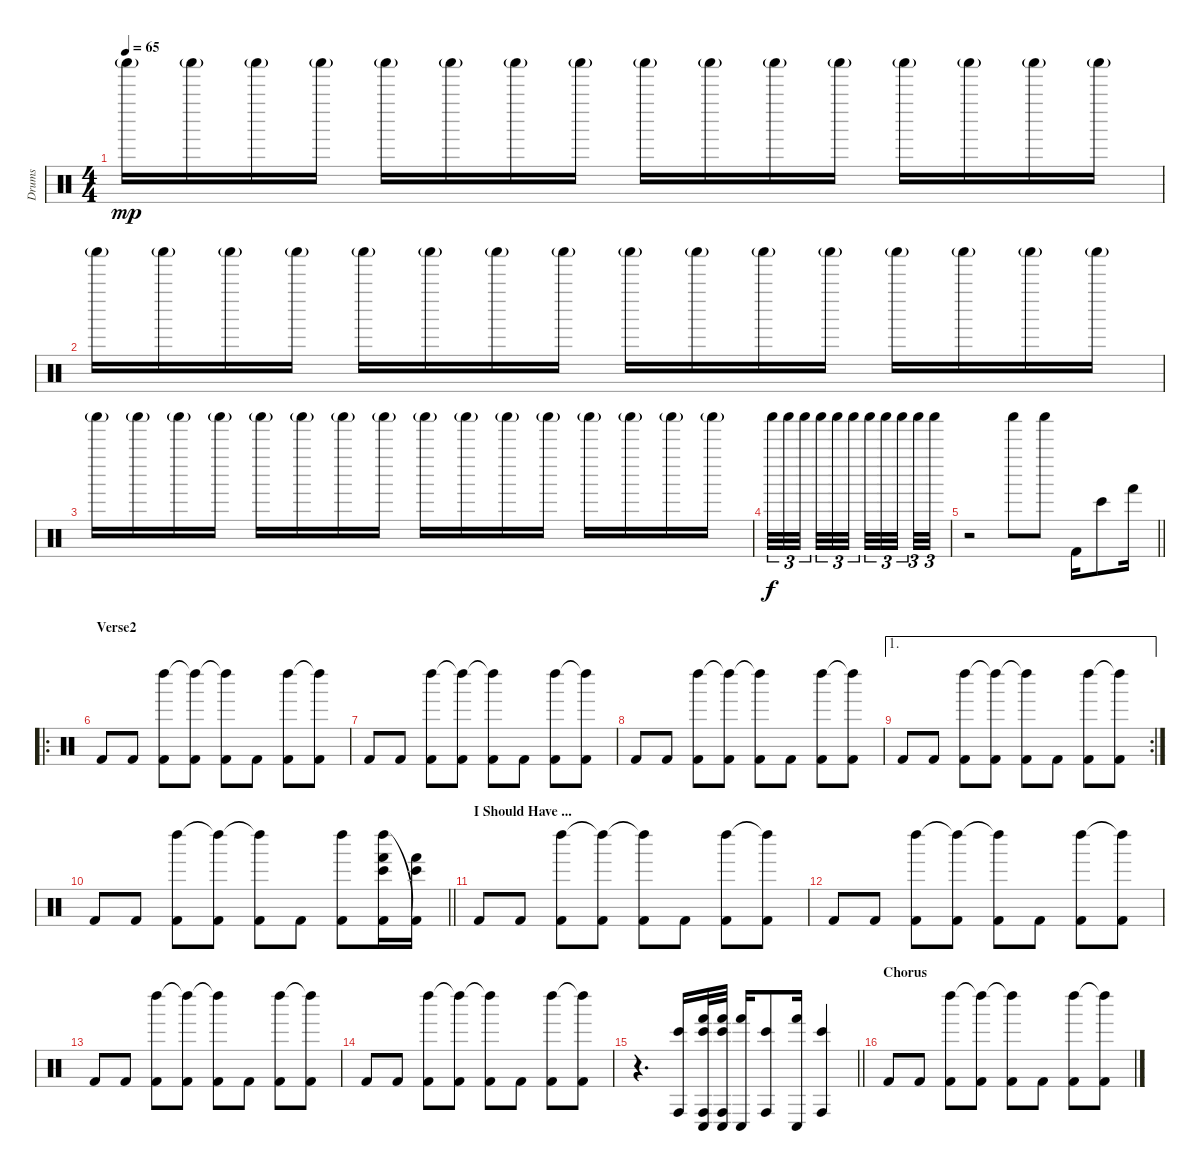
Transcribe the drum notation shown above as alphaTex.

\track ("Drums" "Drums") {instrument percussion}
\staff {score}
\articulation defaults
\ts (4 4)
\tempo 65
\clef neutral
\ks c "Shaker (hit)"{g}.16{dy mp} "Shaker (hit)"{g}.16 "Shaker (hit)"{g}.16 "Shaker (hit)"{g}.16 "Shaker (hit)"{g}.16 "Shaker (hit)"{g}.16 "Shaker (hit)"{g}.16 "Shaker (hit)"{g}.16 "Shaker (hit)"{g}.16 "Shaker (hit)"{g}.16 "Shaker (hit)"{g}.16 "Shaker (hit)"{g}.16 "Shaker (hit)"{g}.16 "Shaker (hit)"{g}.16 "Shaker (hit)"{g}.16 "Shaker (hit)"{g}.16
|
"Shaker (hit)"{g}.16 "Shaker (hit)"{g}.16 "Shaker (hit)"{g}.16 "Shaker (hit)"{g}.16 "Shaker (hit)"{g}.16 "Shaker (hit)"{g}.16 "Shaker (hit)"{g}.16 "Shaker (hit)"{g}.16 "Shaker (hit)"{g}.16 "Shaker (hit)"{g}.16 "Shaker (hit)"{g}.16 "Shaker (hit)"{g}.16 "Shaker (hit)"{g}.16 "Shaker (hit)"{g}.16 "Shaker (hit)"{g}.16 "Shaker (hit)"{g}.16 |
"Shaker (hit)"{g}.16 "Shaker (hit)"{g}.16 "Shaker (hit)"{g}.16 "Shaker (hit)"{g}.16 "Shaker (hit)"{g}.16 "Shaker (hit)"{g}.16 "Shaker (hit)"{g}.16 "Shaker (hit)"{g}.16 "Shaker (hit)"{g}.16 "Shaker (hit)"{g}.16 "Shaker (hit)"{g}.16 "Shaker (hit)"{g}.16 "Shaker (hit)"{g}.16 "Shaker (hit)"{g}.16 "Shaker (hit)"{g}.16 "Shaker (hit)"{g}.16 |
"Shaker (hit)".32{tu (3 2) dy f} "Shaker (hit)".32{tu (3 2)} "Shaker (hit)".32{tu (3 2) beam splitsecondary} "Shaker (hit)".32{tu (3 2)} "Shaker (hit)".32{tu (3 2)} "Shaker (hit)".32{tu (3 2) beam splitsecondary} "Shaker (hit)".32{tu (3 2)} "Shaker (hit)".32{tu (3 2)} "Shaker (hit)".32{tu (3 2) beam splitsecondary} "Shaker (hit)".32{tu (3 2)} "Shaker (hit)".32{tu (3 2)} |
\barLineRight lightlight
r.2 "Shaker (hit)".8 "Shaker (hit)".8 "Kick (hit) 2".16 "Bongo High (hit)".8 "Hand (hit)".16 |
\ro
\section ("" "Verse2")
"Kick (hit) 2".8 "Kick (hit) 2".8 ("Left Maraca (hit)" "Kick (hit) 2").8 ("Left Maraca (hit)"{t} "Kick (hit) 2").8 ("Left Maraca (hit)"{t} "Kick (hit) 2").8 "Kick (hit) 2".8 ("Left Maraca (hit)" "Kick (hit) 2").8 ("Left Maraca (hit)"{t} "Kick (hit) 2").8 |
"Kick (hit) 2".8 "Kick (hit) 2".8 ("Left Maraca (hit)" "Kick (hit) 2").8 ("Left Maraca (hit)"{t} "Kick (hit) 2").8 ("Left Maraca (hit)"{t} "Kick (hit) 2").8 "Kick (hit) 2".8 ("Left Maraca (hit)" "Kick (hit) 2").8 ("Left Maraca (hit)"{t} "Kick (hit) 2").8 |
"Kick (hit) 2".8 "Kick (hit) 2".8 ("Left Maraca (hit)" "Kick (hit) 2").8 ("Left Maraca (hit)"{t} "Kick (hit) 2").8 ("Left Maraca (hit)"{t} "Kick (hit) 2").8 "Kick (hit) 2".8 ("Left Maraca (hit)" "Kick (hit) 2").8 ("Left Maraca (hit)"{t} "Kick (hit) 2").8 |
\ae 1
\rc 2 "Kick (hit) 2".8 "Kick (hit) 2".8
("Left Maraca (hit)" "Kick (hit) 2").8 ("Left Maraca (hit)"{t} "Kick (hit) 2").8 ("Left Maraca (hit)"{t} "Kick (hit) 2").8 "Kick (hit) 2".8 ("Left Maraca (hit)" "Kick (hit) 2").8 ("Left Maraca (hit)"{t} "Kick (hit) 2").8 |
\barLineRight lightlight "Kick (hit) 2".8 "Kick (hit) 2".8
("Left Maraca (hit)" "Kick (hit) 2").8 ("Left Maraca (hit)"{t} "Kick (hit) 2").8 ("Left Maraca (hit)"{t} "Kick (hit) 2").8 "Kick (hit) 2".8 ("Left Maraca (hit)" "Kick (hit) 2").8 ("Hand (hit)" "Bongo High (hit)" "Left Maraca (hit)" "Kick (hit) 2").16 ("Hand (hit)" "Bongo High (hit)" "Kick (hit) 2"{t}).16 |
\section ("" "I Should Have ...")
"Kick (hit) 2".8 "Kick (hit) 2".8 ("Left Maraca (hit)" "Kick (hit) 2").8 ("Left Maraca (hit)"{t} "Kick (hit) 2").8 ("Left Maraca (hit)"{t} "Kick (hit) 2").8 "Kick (hit) 2".8 ("Left Maraca (hit)" "Kick (hit) 2").8 ("Left Maraca (hit)"{t} "Kick (hit) 2").8 |
"Kick (hit) 2".8 "Kick (hit) 2".8 ("Left Maraca (hit)" "Kick (hit) 2").8 ("Left Maraca (hit)"{t} "Kick (hit) 2").8 ("Left Maraca (hit)"{t} "Kick (hit) 2").8 "Kick (hit) 2".8 ("Left Maraca (hit)" "Kick (hit) 2").8 ("Left Maraca (hit)"{t} "Kick (hit) 2").8 |
"Kick (hit) 2".8 "Kick (hit) 2".8 ("Left Maraca (hit)" "Kick (hit) 2").8 ("Left Maraca (hit)"{t} "Kick (hit) 2").8 ("Left Maraca (hit)"{t} "Kick (hit) 2").8 "Kick (hit) 2".8 ("Left Maraca (hit)" "Kick (hit) 2").8 ("Left Maraca (hit)"{t} "Kick (hit) 2").8 |
"Kick (hit) 2".8 "Kick (hit) 2".8 ("Left Maraca (hit)" "Kick (hit) 2").8 ("Left Maraca (hit)"{t} "Kick (hit) 2").8 ("Left Maraca (hit)"{t} "Kick (hit) 2").8 "Kick (hit) 2".8 ("Left Maraca (hit)" "Kick (hit) 2").8 ("Left Maraca (hit)"{t} "Kick (hit) 2").8 |
\barLineRight lightlight
r.4{d} ("Conga high (hit)" "Bongo High (hit)").16 ("Conga high (hit)" "Conga low (hit)" "Bongo High (hit)" "Hand (hit)").32 ("Conga high (hit)" "Conga low (hit)" "Bongo High (hit)" "Hand (hit)").32 ("Conga low (hit)" "Hand (hit)").16 ("Conga high (hit)" "Bongo High (hit)").8 ("Conga low (hit)" "Hand (hit)").16 ("Conga high (hit)" "Bongo High (hit)").4 |
\section ("" "Chorus")
"Kick (hit) 2".8 "Kick (hit) 2".8 ("Left Maraca (hit)" "Kick (hit) 2").8 ("Left Maraca (hit)"{t} "Kick (hit) 2").8 ("Left Maraca (hit)"{t} "Kick (hit) 2").8 "Kick (hit) 2".8 ("Left Maraca (hit)" "Kick (hit) 2").8 ("Left Maraca (hit)"{t} "Kick (hit) 2").8
